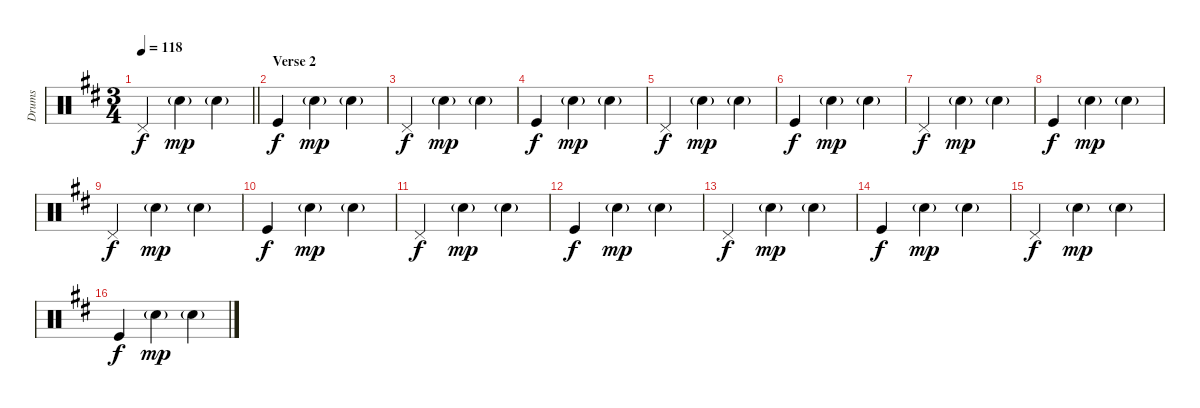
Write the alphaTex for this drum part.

\track ("Drums" "Drums") {instrument percussion}
\staff {score}
\articulation defaults
\ts (3 4)
\tempo 118
\clef neutral
\barLineRight lightlight
\ks d "Pedal Hi-Hat (hit)".4{dy f} "Snare (hit) 2"{g}.4{dy mp} "Snare (hit) 2"{g}.4
|
\section ("" "Verse 2")
"Kick (hit)".4{dy f} "Snare (hit) 2"{g}.4{dy mp} "Snare (hit) 2"{g}.4 |
"Pedal Hi-Hat (hit)".4{dy f} "Snare (hit) 2"{g}.4{dy mp} "Snare (hit) 2"{g}.4 |
"Kick (hit)".4{dy f} "Snare (hit) 2"{g}.4{dy mp} "Snare (hit) 2"{g}.4 |
"Pedal Hi-Hat (hit)".4{dy f} "Snare (hit) 2"{g}.4{dy mp} "Snare (hit) 2"{g}.4 |
"Kick (hit)".4{dy f} "Snare (hit) 2"{g}.4{dy mp} "Snare (hit) 2"{g}.4 |
"Pedal Hi-Hat (hit)".4{dy f} "Snare (hit) 2"{g}.4{dy mp} "Snare (hit) 2"{g}.4 |
"Kick (hit)".4{dy f} "Snare (hit) 2"{g}.4{dy mp} "Snare (hit) 2"{g}.4 |
"Pedal Hi-Hat (hit)".4{dy f} "Snare (hit) 2"{g}.4{dy mp} "Snare (hit) 2"{g}.4 |
"Kick (hit)".4{dy f} "Snare (hit) 2"{g}.4{dy mp} "Snare (hit) 2"{g}.4 |
"Pedal Hi-Hat (hit)".4{dy f} "Snare (hit) 2"{g}.4{dy mp} "Snare (hit) 2"{g}.4 |
"Kick (hit)".4{dy f} "Snare (hit) 2"{g}.4{dy mp} "Snare (hit) 2"{g}.4 |
"Pedal Hi-Hat (hit)".4{dy f} "Snare (hit) 2"{g}.4{dy mp} "Snare (hit) 2"{g}.4 |
"Kick (hit)".4{dy f} "Snare (hit) 2"{g}.4{dy mp} "Snare (hit) 2"{g}.4 |
"Pedal Hi-Hat (hit)".4{dy f} "Snare (hit) 2"{g}.4{dy mp} "Snare (hit) 2"{g}.4 |
"Kick (hit)".4{dy f} "Snare (hit) 2"{g}.4{dy mp} "Snare (hit) 2"{g}.4
